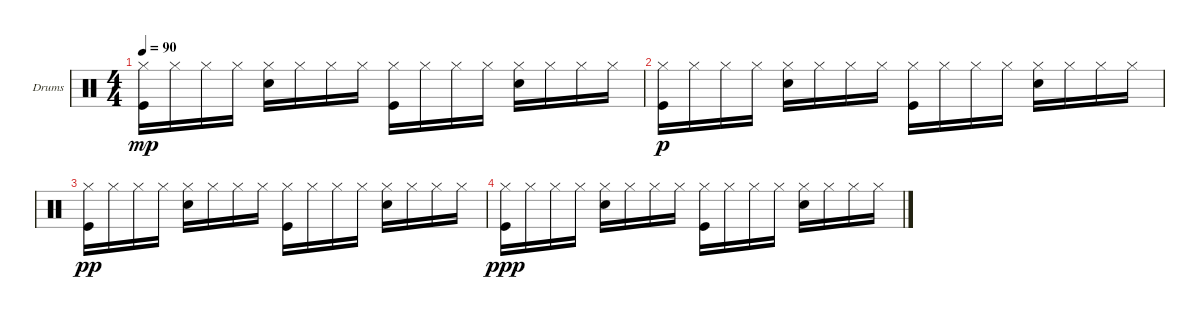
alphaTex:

\defaultSystemsLayout 4
\bracketExtendMode groupsimilarinstruments
\firstSystemTrackNameOrientation horizontal
\otherSystemsTrackNameOrientation horizontal
\track ("Drumkit" "Drums") {instrument percussion}
\staff {score}
\articulation defaults
\ts (4 4)
\tempo 90
\clef neutral
\scale
0.333333
\ks c
("Kick (hit)" "Hi-Hat (closed)").16{dy mp} "Hi-Hat (closed)".16 "Hi-Hat (closed)".16 "Hi-Hat (closed)".16 ("Hi-Hat (closed)" "Snare (hit) 2").16 "Hi-Hat (closed)".16 "Hi-Hat (closed)".16 "Hi-Hat (closed)".16 ("Hi-Hat (closed)" "Kick (hit)").16 "Hi-Hat (closed)".16 "Hi-Hat (closed)".16 "Hi-Hat (closed)".16 ("Snare (hit) 2" "Hi-Hat (closed)").16 "Hi-Hat (closed)".16 "Hi-Hat (closed)".16 "Hi-Hat (closed)".16 |
\scale
0.333333 ("Hi-Hat (closed)" "Kick (hit)").16{dy p} "Hi-Hat (closed)".16 "Hi-Hat (closed)".16 "Hi-Hat (closed)".16 ("Hi-Hat (closed)" "Snare (hit) 2").16 "Hi-Hat (closed)".16 "Hi-Hat (closed)".16 "Hi-Hat (closed)".16 ("Kick (hit)" "Hi-Hat (closed)").16 "Hi-Hat (closed)".16 "Hi-Hat (closed)".16 "Hi-Hat (closed)".16 ("Hi-Hat (closed)" "Snare (hit) 2").16 "Hi-Hat (closed)".16 "Hi-Hat (closed)".16 "Hi-Hat (closed)".16 |
\scale
0.333333 ("Hi-Hat (closed)" "Kick (hit)").16{dy pp} "Hi-Hat (closed)".16 "Hi-Hat (closed)".16 "Hi-Hat (closed)".16 ("Snare (hit) 2" "Hi-Hat (closed)").16 "Hi-Hat (closed)".16 "Hi-Hat (closed)".16 "Hi-Hat (closed)".16 ("Hi-Hat (closed)" "Kick (hit)").16 "Hi-Hat (closed)".16 "Hi-Hat (closed)".16 "Hi-Hat (closed)".16 ("Hi-Hat (closed)" "Snare (hit) 2").16 "Hi-Hat (closed)".16 "Hi-Hat (closed)".16 "Hi-Hat (closed)".16 |
\scale
0.333333 ("Kick (hit)" "Hi-Hat (closed)").16{dy ppp} "Hi-Hat (closed)".16 "Hi-Hat (closed)".16 "Hi-Hat (closed)".16 ("Hi-Hat (closed)" "Snare (hit) 2").16 "Hi-Hat (closed)".16 "Hi-Hat (closed)".16 "Hi-Hat (closed)".16 ("Hi-Hat (closed)" "Kick (hit)").16 "Hi-Hat (closed)".16 "Hi-Hat (closed)".16 "Hi-Hat (closed)".16 ("Snare (hit) 2" "Hi-Hat (closed)").16 "Hi-Hat (closed)".16 "Hi-Hat (closed)".16 "Hi-Hat (closed)".16 |
|
|
|
|
|
|
|
|
\scale
0.333333 |
\scale
0.333333 |
\scale
0.333333 |
\scale
0.333333
